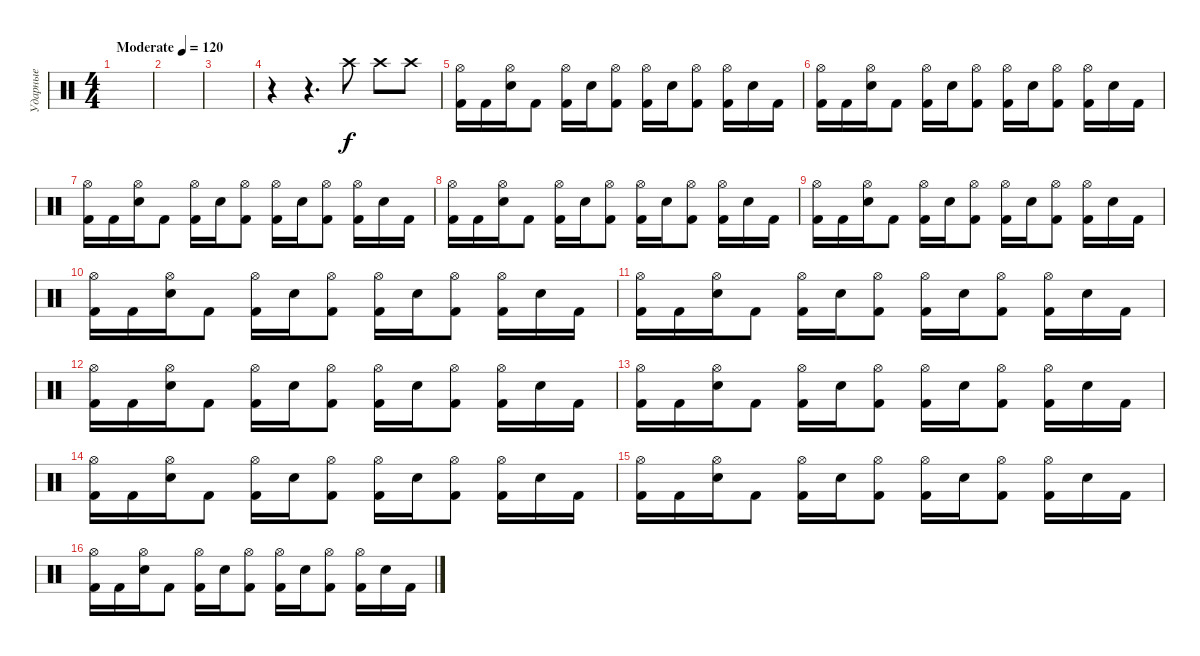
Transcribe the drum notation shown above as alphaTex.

\track ("Ударные" "Ударные") {instrument percussion}
\staff {score}
\articulation defaults
\ts (4 4)
\tempo (120 "Moderate")
\clef neutral
\ks c
|
|
|
r.4 r.4{d} "Crash high (hit)".8 "Crash high (hit)".8 "Crash high (hit)".8 |
("Hi-Hat (open)" "Kick (hit) 2").16 "Kick (hit) 2".16 ("Hi-Hat (open)" "Electric Snare (hit)").16 "Kick (hit) 2".8 ("Hi-Hat (open)" "Kick (hit) 2").16 "Electric Snare (hit)".16 ("Hi-Hat (open)" "Kick (hit) 2").8 ("Hi-Hat (open)" "Kick (hit) 2").16 "Electric Snare (hit)".16 ("Hi-Hat (open)" "Kick (hit) 2").8 ("Hi-Hat (open)" "Kick (hit) 2").16 "Electric Snare (hit)".16 "Kick (hit) 2".16 |
("Hi-Hat (open)" "Kick (hit) 2").16 "Kick (hit) 2".16 ("Hi-Hat (open)" "Electric Snare (hit)").16 "Kick (hit) 2".8 ("Hi-Hat (open)" "Kick (hit) 2").16 "Electric Snare (hit)".16 ("Hi-Hat (open)" "Kick (hit) 2").8 ("Hi-Hat (open)" "Kick (hit) 2").16 "Electric Snare (hit)".16 ("Hi-Hat (open)" "Kick (hit) 2").8 ("Hi-Hat (open)" "Kick (hit) 2").16 "Electric Snare (hit)".16 "Kick (hit) 2".16 |
("Hi-Hat (open)" "Kick (hit) 2").16 "Kick (hit) 2".16 ("Hi-Hat (open)" "Electric Snare (hit)").16 "Kick (hit) 2".8 ("Hi-Hat (open)" "Kick (hit) 2").16 "Electric Snare (hit)".16 ("Hi-Hat (open)" "Kick (hit) 2").8 ("Hi-Hat (open)" "Kick (hit) 2").16 "Electric Snare (hit)".16 ("Hi-Hat (open)" "Kick (hit) 2").8 ("Hi-Hat (open)" "Kick (hit) 2").16 "Electric Snare (hit)".16 "Kick (hit) 2".16 |
("Hi-Hat (open)" "Kick (hit) 2").16 "Kick (hit) 2".16 ("Hi-Hat (open)" "Electric Snare (hit)").16 "Kick (hit) 2".8 ("Hi-Hat (open)" "Kick (hit) 2").16 "Electric Snare (hit)".16 ("Hi-Hat (open)" "Kick (hit) 2").8 ("Hi-Hat (open)" "Kick (hit) 2").16 "Electric Snare (hit)".16 ("Hi-Hat (open)" "Kick (hit) 2").8 ("Hi-Hat (open)" "Kick (hit) 2").16 "Electric Snare (hit)".16 "Kick (hit) 2".16 |
("Hi-Hat (open)" "Kick (hit) 2").16 "Kick (hit) 2".16 ("Hi-Hat (open)" "Electric Snare (hit)").16 "Kick (hit) 2".8 ("Hi-Hat (open)" "Kick (hit) 2").16 "Electric Snare (hit)".16 ("Hi-Hat (open)" "Kick (hit) 2").8 ("Hi-Hat (open)" "Kick (hit) 2").16 "Electric Snare (hit)".16 ("Hi-Hat (open)" "Kick (hit) 2").8 ("Hi-Hat (open)" "Kick (hit) 2").16 "Electric Snare (hit)".16 "Kick (hit) 2".16 |
("Hi-Hat (open)" "Kick (hit) 2").16 "Kick (hit) 2".16 ("Hi-Hat (open)" "Electric Snare (hit)").16 "Kick (hit) 2".8 ("Hi-Hat (open)" "Kick (hit) 2").16 "Electric Snare (hit)".16 ("Hi-Hat (open)" "Kick (hit) 2").8 ("Hi-Hat (open)" "Kick (hit) 2").16 "Electric Snare (hit)".16 ("Hi-Hat (open)" "Kick (hit) 2").8 ("Hi-Hat (open)" "Kick (hit) 2").16 "Electric Snare (hit)".16 "Kick (hit) 2".16 |
("Hi-Hat (open)" "Kick (hit) 2").16 "Kick (hit) 2".16 ("Hi-Hat (open)" "Electric Snare (hit)").16 "Kick (hit) 2".8 ("Hi-Hat (open)" "Kick (hit) 2").16 "Electric Snare (hit)".16 ("Hi-Hat (open)" "Kick (hit) 2").8 ("Hi-Hat (open)" "Kick (hit) 2").16 "Electric Snare (hit)".16 ("Hi-Hat (open)" "Kick (hit) 2").8 ("Hi-Hat (open)" "Kick (hit) 2").16 "Electric Snare (hit)".16 "Kick (hit) 2".16 |
("Hi-Hat (open)" "Kick (hit) 2").16 "Kick (hit) 2".16 ("Hi-Hat (open)" "Electric Snare (hit)").16 "Kick (hit) 2".8 ("Hi-Hat (open)" "Kick (hit) 2").16 "Electric Snare (hit)".16 ("Hi-Hat (open)" "Kick (hit) 2").8 ("Hi-Hat (open)" "Kick (hit) 2").16 "Electric Snare (hit)".16 ("Hi-Hat (open)" "Kick (hit) 2").8 ("Hi-Hat (open)" "Kick (hit) 2").16 "Electric Snare (hit)".16 "Kick (hit) 2".16 |
("Hi-Hat (open)" "Kick (hit) 2").16 "Kick (hit) 2".16 ("Hi-Hat (open)" "Electric Snare (hit)").16 "Kick (hit) 2".8 ("Hi-Hat (open)" "Kick (hit) 2").16 "Electric Snare (hit)".16 ("Hi-Hat (open)" "Kick (hit) 2").8 ("Hi-Hat (open)" "Kick (hit) 2").16 "Electric Snare (hit)".16 ("Hi-Hat (open)" "Kick (hit) 2").8 ("Hi-Hat (open)" "Kick (hit) 2").16 "Electric Snare (hit)".16 "Kick (hit) 2".16 |
("Hi-Hat (open)" "Kick (hit) 2").16 "Kick (hit) 2".16 ("Hi-Hat (open)" "Electric Snare (hit)").16 "Kick (hit) 2".8 ("Hi-Hat (open)" "Kick (hit) 2").16 "Electric Snare (hit)".16 ("Hi-Hat (open)" "Kick (hit) 2").8 ("Hi-Hat (open)" "Kick (hit) 2").16 "Electric Snare (hit)".16 ("Hi-Hat (open)" "Kick (hit) 2").8 ("Hi-Hat (open)" "Kick (hit) 2").16 "Electric Snare (hit)".16 "Kick (hit) 2".16 |
("Hi-Hat (open)" "Kick (hit) 2").16 "Kick (hit) 2".16 ("Hi-Hat (open)" "Electric Snare (hit)").16 "Kick (hit) 2".8 ("Hi-Hat (open)" "Kick (hit) 2").16 "Electric Snare (hit)".16 ("Hi-Hat (open)" "Kick (hit) 2").8 ("Hi-Hat (open)" "Kick (hit) 2").16 "Electric Snare (hit)".16 ("Hi-Hat (open)" "Kick (hit) 2").8 ("Hi-Hat (open)" "Kick (hit) 2").16 "Electric Snare (hit)".16 "Kick (hit) 2".16 |
("Hi-Hat (open)" "Kick (hit) 2").16 "Kick (hit) 2".16 ("Hi-Hat (open)" "Electric Snare (hit)").16 "Kick (hit) 2".8 ("Hi-Hat (open)" "Kick (hit) 2").16 "Electric Snare (hit)".16 ("Hi-Hat (open)" "Kick (hit) 2").8 ("Hi-Hat (open)" "Kick (hit) 2").16 "Electric Snare (hit)".16 ("Hi-Hat (open)" "Kick (hit) 2").8 ("Hi-Hat (open)" "Kick (hit) 2").16 "Electric Snare (hit)".16 "Kick (hit) 2".16
